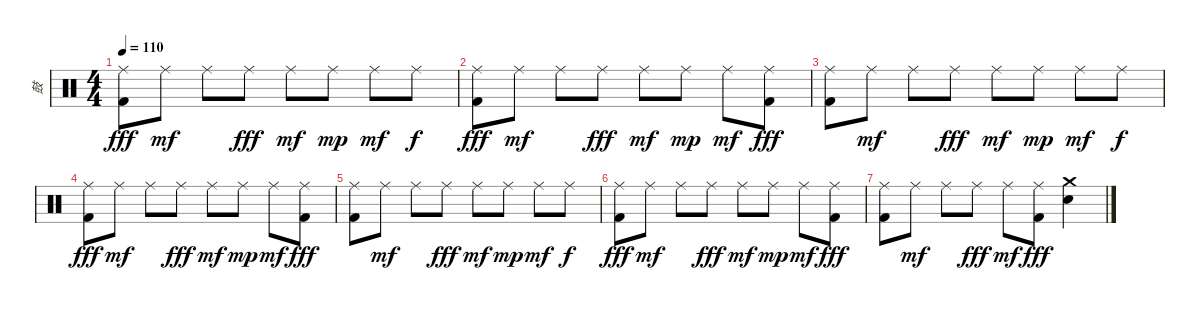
\track ("鼓" "鼓") {instrument percussion}
\staff {score}
\articulation defaults
\ts (4 4)
\tempo 110
\clef neutral
\ks c
("Ride (middle)" "Kick (hit) 2").8{dy fff} "Ride (middle)".8{dy mf} "Ride (middle)".8 "Ride (middle)".8{dy fff} "Ride (middle)".8{dy mf} "Ride (middle)".8{dy mp} "Ride (middle)".8{dy mf} "Ride (middle)".8{dy f} |
("Ride (middle)" "Kick (hit) 2").8{dy fff} "Ride (middle)".8{dy mf} "Ride (middle)".8 "Ride (middle)".8{dy fff} "Ride (middle)".8{dy mf} "Ride (middle)".8{dy mp} "Ride (middle)".8{dy mf} ("Ride (middle)" "Kick (hit) 2").8{dy fff} |
("Ride (middle)" "Kick (hit) 2").8 "Ride (middle)".8{dy mf} "Ride (middle)".8 "Ride (middle)".8{dy fff} "Ride (middle)".8{dy mf} "Ride (middle)".8{dy mp} "Ride (middle)".8{dy mf} "Ride (middle)".8{dy f} |
("Ride (middle)" "Kick (hit) 2").8{dy fff} "Ride (middle)".8{dy mf} "Ride (middle)".8 "Ride (middle)".8{dy fff} "Ride (middle)".8{dy mf} "Ride (middle)".8{dy mp} "Ride (middle)".8{dy mf} ("Ride (middle)" "Kick (hit) 2").8{dy fff} |
("Ride (middle)" "Kick (hit) 2").8 "Ride (middle)".8{dy mf} "Ride (middle)".8 "Ride (middle)".8{dy fff} "Ride (middle)".8{dy mf} "Ride (middle)".8{dy mp} "Ride (middle)".8{dy mf} "Ride (middle)".8{dy f} |
("Ride (middle)" "Kick (hit) 2").8{dy fff} "Ride (middle)".8{dy mf} "Ride (middle)".8 "Ride (middle)".8{dy fff} "Ride (middle)".8{dy mf} "Ride (middle)".8{dy mp} "Ride (middle)".8{dy mf} ("Ride (middle)" "Kick (hit) 2").8{dy fff} |
("Ride (middle)" "Kick (hit) 2").8 "Ride (middle)".8{dy mf} "Ride (middle)".8 "Ride (middle)".8{dy fff} "Ride (middle)".8{dy mf} ("Ride (middle)" "Kick (hit) 2").8{dy fff} ("Crash medium (hit)" "Electric Snare (hit)").4
